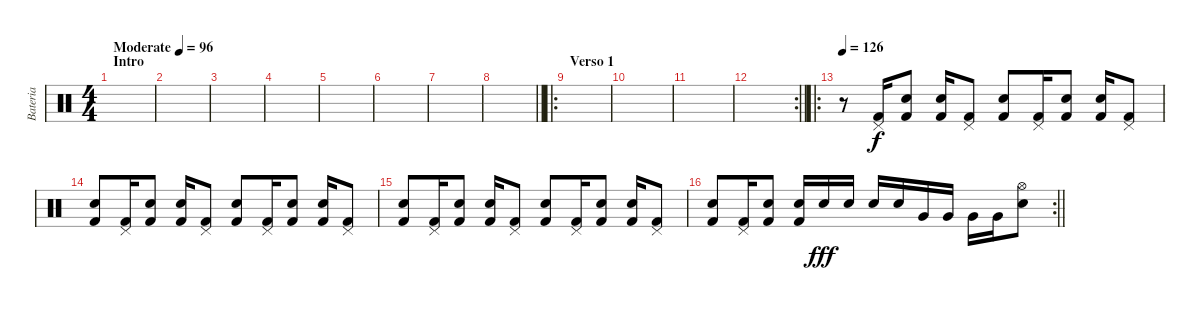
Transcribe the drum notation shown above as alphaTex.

\track ("Bateria" "Bateria") {instrument percussion}
\staff {score}
\articulation defaults
\ts (4 4)
\section ("" "Intro")
\tempo (96 "Moderate")
\clef neutral
\ks c
|
|
|
|
|
|
|
\barLineRight lightlight
|
\ro
\section ("" "Verso 1")
|
|
|
\rc 2
\barLineRight lightlight
|
\ro
\section ("" "")
\tempo 126
r.8 ("Pedal Hi-Hat (hit)" "Kick (hit) 2").16 ("Electric Snare (hit)" "Kick (hit) 2").8 ("Electric Snare (hit)" "Kick (hit) 2").16 ("Pedal Hi-Hat (hit)" "Kick (hit) 2").8 ("Electric Snare (hit)" "Kick (hit) 2").8 ("Pedal Hi-Hat (hit)" "Kick (hit) 2").16 ("Electric Snare (hit)" "Kick (hit) 2").8 ("Electric Snare (hit)" "Kick (hit) 2").16 ("Pedal Hi-Hat (hit)" "Kick (hit) 2").8 |
("Electric Snare (hit)" "Kick (hit) 2").8 ("Pedal Hi-Hat (hit)" "Kick (hit) 2").16 ("Electric Snare (hit)" "Kick (hit) 2").8 ("Electric Snare (hit)" "Kick (hit) 2").16 ("Pedal Hi-Hat (hit)" "Kick (hit) 2").8 ("Electric Snare (hit)" "Kick (hit) 2").8 ("Pedal Hi-Hat (hit)" "Kick (hit) 2").16 ("Electric Snare (hit)" "Kick (hit) 2").8 ("Electric Snare (hit)" "Kick (hit) 2").16 ("Pedal Hi-Hat (hit)" "Kick (hit) 2").8 |
("Electric Snare (hit)" "Kick (hit) 2").8 ("Pedal Hi-Hat (hit)" "Kick (hit) 2").16 ("Electric Snare (hit)" "Kick (hit) 2").8 ("Electric Snare (hit)" "Kick (hit) 2").16 ("Pedal Hi-Hat (hit)" "Kick (hit) 2").8 ("Electric Snare (hit)" "Kick (hit) 2").8 ("Pedal Hi-Hat (hit)" "Kick (hit) 2").16 ("Electric Snare (hit)" "Kick (hit) 2").8 ("Electric Snare (hit)" "Kick (hit) 2").16 ("Pedal Hi-Hat (hit)" "Kick (hit) 2").8 |
\rc 2
\barLineRight lightlight
("Electric Snare (hit)" "Kick (hit) 2").8 ("Pedal Hi-Hat (hit)" "Kick (hit) 2").16 ("Electric Snare (hit)" "Kick (hit) 2").8 ("Electric Snare (hit)" "Kick (hit) 2").16 "Electric Snare (hit)".16{dy fff} "Electric Snare (hit)".16 "Electric Snare (hit)".16 "Electric Snare (hit)".16 "Very Low Tom (hit)".16 "Very Low Tom (hit)".16 "Very Low Tom (hit)".16 "Very Low Tom (hit)".16 ("Hi-Hat (open)" "Electric Snare (hit)").8
